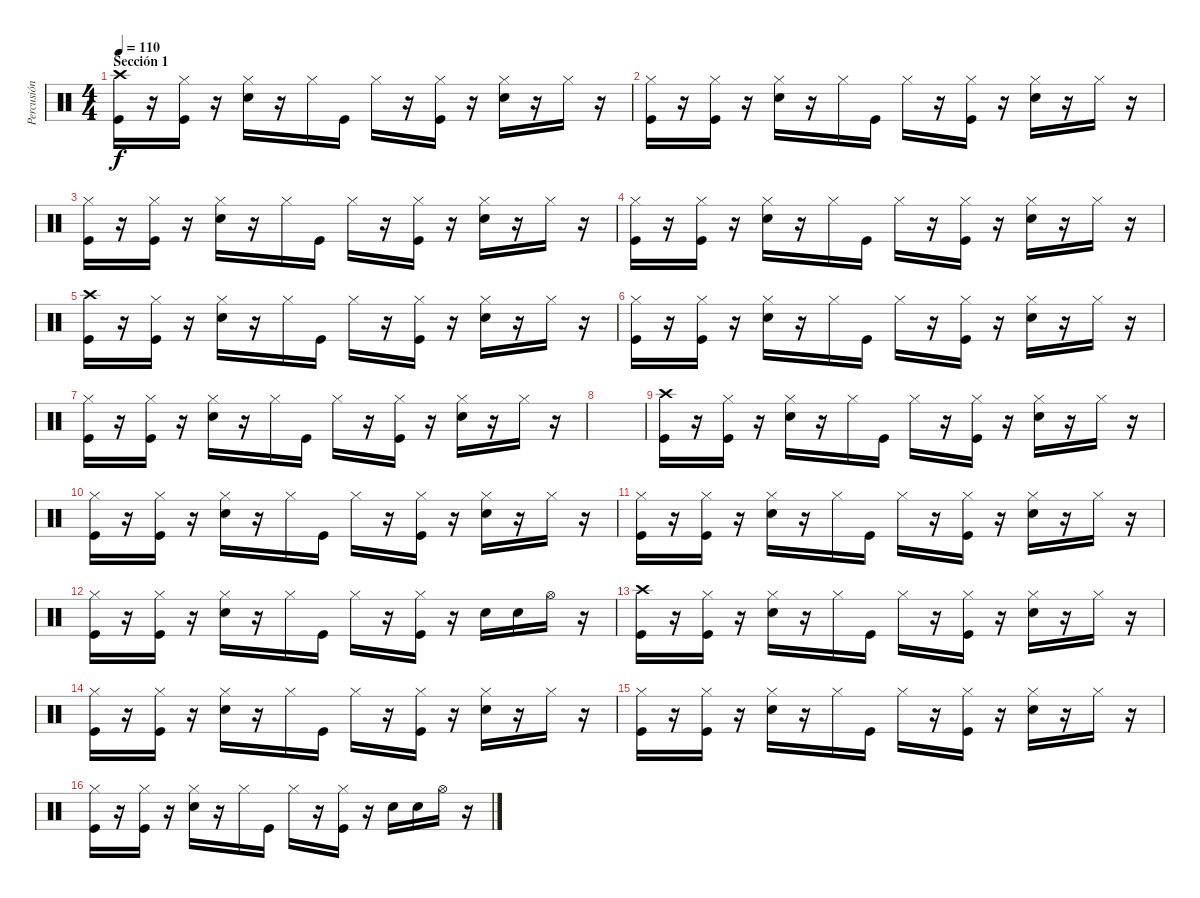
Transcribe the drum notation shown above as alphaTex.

\track ("Percusión" "Percusión") {instrument percussion}
\staff {score}
\articulation defaults
\ts (4 4)
\section ("" "Sección 1")
\tempo 110
\clef neutral
\ks c
("Crash high (hit)" "Kick (hit)").16{dy f} r.16 ("Hi-Hat (closed)" "Kick (hit)").16 r.16 ("Hi-Hat (closed)" "Electric Snare (hit)").16 r.16 "Hi-Hat (closed)".16 "Kick (hit)".16 "Hi-Hat (closed)".16 r.16 ("Hi-Hat (closed)" "Kick (hit)").16 r.16 ("Hi-Hat (closed)" "Electric Snare (hit)").16 r.16 "Hi-Hat (closed)".16 r.16 |
("Hi-Hat (closed)" "Kick (hit)").16 r.16 ("Hi-Hat (closed)" "Kick (hit)").16 r.16 ("Hi-Hat (closed)" "Electric Snare (hit)").16 r.16 "Hi-Hat (closed)".16 "Kick (hit)".16 "Hi-Hat (closed)".16 r.16 ("Hi-Hat (closed)" "Kick (hit)").16 r.16 ("Hi-Hat (closed)" "Electric Snare (hit)").16 r.16 "Hi-Hat (closed)".16 r.16 |
("Hi-Hat (closed)" "Kick (hit)").16 r.16 ("Hi-Hat (closed)" "Kick (hit)").16 r.16 ("Hi-Hat (closed)" "Electric Snare (hit)").16 r.16 "Hi-Hat (closed)".16 "Kick (hit)".16 "Hi-Hat (closed)".16 r.16 ("Hi-Hat (closed)" "Kick (hit)").16 r.16 ("Hi-Hat (closed)" "Electric Snare (hit)").16 r.16 "Hi-Hat (closed)".16 r.16 |
("Hi-Hat (closed)" "Kick (hit)").16 r.16 ("Hi-Hat (closed)" "Kick (hit)").16 r.16 ("Hi-Hat (closed)" "Electric Snare (hit)").16 r.16 "Hi-Hat (closed)".16 "Kick (hit)".16 "Hi-Hat (closed)".16 r.16 ("Hi-Hat (closed)" "Kick (hit)").16 r.16 ("Hi-Hat (closed)" "Electric Snare (hit)").16 r.16 "Hi-Hat (closed)".16 r.16 |
("Crash high (hit)" "Kick (hit)").16 r.16 ("Hi-Hat (closed)" "Kick (hit)").16 r.16 ("Hi-Hat (closed)" "Electric Snare (hit)").16 r.16 "Hi-Hat (closed)".16 "Kick (hit)".16 "Hi-Hat (closed)".16 r.16 ("Hi-Hat (closed)" "Kick (hit)").16 r.16 ("Hi-Hat (closed)" "Electric Snare (hit)").16 r.16 "Hi-Hat (closed)".16 r.16 |
("Hi-Hat (closed)" "Kick (hit)").16 r.16 ("Hi-Hat (closed)" "Kick (hit)").16 r.16 ("Hi-Hat (closed)" "Electric Snare (hit)").16 r.16 "Hi-Hat (closed)".16 "Kick (hit)".16 "Hi-Hat (closed)".16 r.16 ("Hi-Hat (closed)" "Kick (hit)").16 r.16 ("Hi-Hat (closed)" "Electric Snare (hit)").16 r.16 "Hi-Hat (closed)".16 r.16 |
("Hi-Hat (closed)" "Kick (hit)").16 r.16 ("Hi-Hat (closed)" "Kick (hit)").16 r.16 ("Hi-Hat (closed)" "Electric Snare (hit)").16 r.16 "Hi-Hat (closed)".16 "Kick (hit)".16 "Hi-Hat (closed)".16 r.16 ("Hi-Hat (closed)" "Kick (hit)").16 r.16 ("Hi-Hat (closed)" "Electric Snare (hit)").16 r.16 "Hi-Hat (closed)".16 r.16 |
|
("Crash high (hit)" "Kick (hit)").16 r.16 ("Hi-Hat (closed)" "Kick (hit)").16 r.16 ("Hi-Hat (closed)" "Electric Snare (hit)").16 r.16 "Hi-Hat (closed)".16 "Kick (hit)".16 "Hi-Hat (closed)".16 r.16 ("Hi-Hat (closed)" "Kick (hit)").16 r.16 ("Hi-Hat (closed)" "Electric Snare (hit)").16 r.16 "Hi-Hat (closed)".16 r.16 |
("Hi-Hat (closed)" "Kick (hit)").16 r.16 ("Hi-Hat (closed)" "Kick (hit)").16 r.16 ("Hi-Hat (closed)" "Electric Snare (hit)").16 r.16 "Hi-Hat (closed)".16 "Kick (hit)".16 "Hi-Hat (closed)".16 r.16 ("Hi-Hat (closed)" "Kick (hit)").16 r.16 ("Hi-Hat (closed)" "Electric Snare (hit)").16 r.16 "Hi-Hat (closed)".16 r.16 |
("Hi-Hat (closed)" "Kick (hit)").16 r.16 ("Hi-Hat (closed)" "Kick (hit)").16 r.16 ("Hi-Hat (closed)" "Electric Snare (hit)").16 r.16 "Hi-Hat (closed)".16 "Kick (hit)".16 "Hi-Hat (closed)".16 r.16 ("Hi-Hat (closed)" "Kick (hit)").16 r.16 ("Hi-Hat (closed)" "Electric Snare (hit)").16 r.16 "Hi-Hat (closed)".16 r.16 |
("Hi-Hat (closed)" "Kick (hit)").16 r.16 ("Hi-Hat (closed)" "Kick (hit)").16 r.16 ("Hi-Hat (closed)" "Electric Snare (hit)").16 r.16 "Hi-Hat (closed)".16 "Kick (hit)".16 "Hi-Hat (closed)".16 r.16 ("Hi-Hat (closed)" "Kick (hit)").16 r.16 "Electric Snare (hit)".16 "Electric Snare (hit)".16 "Hi-Hat (open)".16 r.16 |
("Crash high (hit)" "Kick (hit)").16 r.16 ("Hi-Hat (closed)" "Kick (hit)").16 r.16 ("Hi-Hat (closed)" "Electric Snare (hit)").16 r.16 "Hi-Hat (closed)".16 "Kick (hit)".16 "Hi-Hat (closed)".16 r.16 ("Hi-Hat (closed)" "Kick (hit)").16 r.16 ("Hi-Hat (closed)" "Electric Snare (hit)").16 r.16 "Hi-Hat (closed)".16 r.16 |
("Hi-Hat (closed)" "Kick (hit)").16 r.16 ("Hi-Hat (closed)" "Kick (hit)").16 r.16 ("Hi-Hat (closed)" "Electric Snare (hit)").16 r.16 "Hi-Hat (closed)".16 "Kick (hit)".16 "Hi-Hat (closed)".16 r.16 ("Hi-Hat (closed)" "Kick (hit)").16 r.16 ("Hi-Hat (closed)" "Electric Snare (hit)").16 r.16 "Hi-Hat (closed)".16 r.16 |
("Hi-Hat (closed)" "Kick (hit)").16 r.16 ("Hi-Hat (closed)" "Kick (hit)").16 r.16 ("Hi-Hat (closed)" "Electric Snare (hit)").16 r.16 "Hi-Hat (closed)".16 "Kick (hit)".16 "Hi-Hat (closed)".16 r.16 ("Hi-Hat (closed)" "Kick (hit)").16 r.16 ("Hi-Hat (closed)" "Electric Snare (hit)").16 r.16 "Hi-Hat (closed)".16 r.16 |
("Hi-Hat (closed)" "Kick (hit)").16 r.16 ("Hi-Hat (closed)" "Kick (hit)").16 r.16 ("Hi-Hat (closed)" "Electric Snare (hit)").16 r.16 "Hi-Hat (closed)".16 "Kick (hit)".16 "Hi-Hat (closed)".16 r.16 ("Hi-Hat (closed)" "Kick (hit)").16 r.16 "Electric Snare (hit)".16 "Electric Snare (hit)".16 "Hi-Hat (open)".16 r.16
